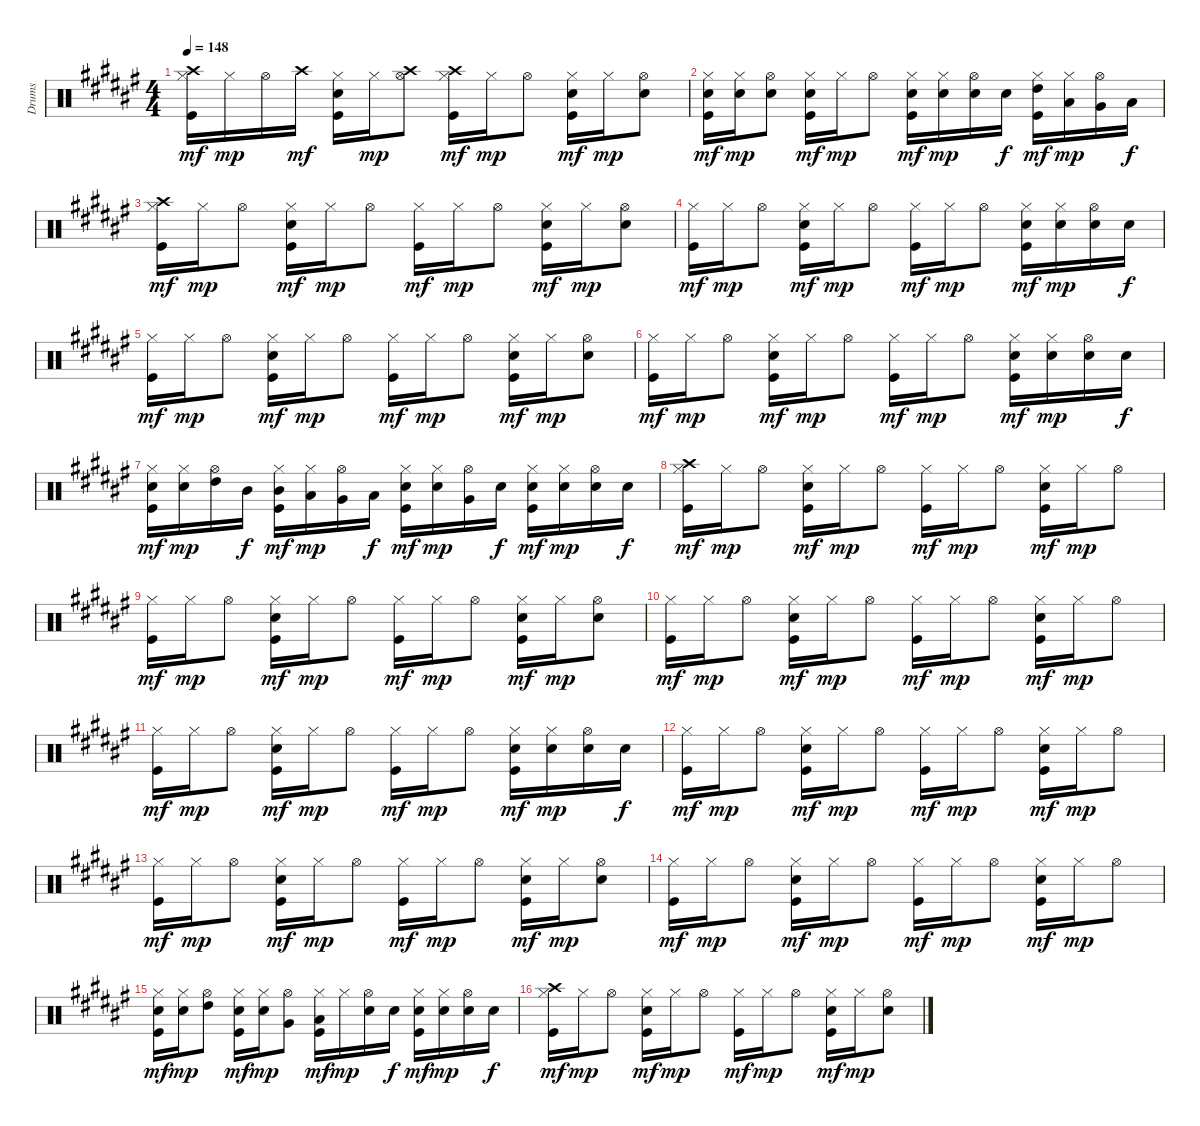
\track ("Drums" "Drums") {instrument percussion}
\staff {score}
\articulation defaults
\ts (4 4)
\tempo 148
\clef neutral
\ks d#minor
("Kick (hit)" "Crash high (hit)" "Hi-Hat (closed)").16{dy mf} "Hi-Hat (closed)".16{dy mp} "Hi-Hat (open)".16 "Crash high (hit)".16{dy mf} ("Electric Snare (hit)" "Kick (hit)" "Hi-Hat (closed)").16 "Hi-Hat (closed)".16{dy mp} ("Crash high (hit)" "Hi-Hat (open)").8 ("Kick (hit)" "Crash high (hit)" "Hi-Hat (closed)").16{dy mf} "Hi-Hat (closed)".16{dy mp} "Hi-Hat (open)".8 ("Electric Snare (hit)" "Kick (hit)" "Hi-Hat (closed)").16{dy mf} "Hi-Hat (closed)".16{dy mp} ("Snare (hit) 2" "Hi-Hat (open)").8 |
("Kick (hit)" "Snare (hit) 2" "Hi-Hat (closed)").16{dy mf} ("Snare (hit) 2" "Hi-Hat (closed)").16{dy mp} ("Electric Snare (hit)" "Hi-Hat (open)").8 ("Kick (hit)" "Snare (hit) 2" "Hi-Hat (closed)").16{dy mf} "Hi-Hat (closed)".16{dy mp} "Hi-Hat (open)".8 ("Kick (hit)" "Snare (hit) 2" "Hi-Hat (closed)").16{dy mf} ("Snare (hit) 2" "Hi-Hat (closed)").16{dy mp} ("Electric Snare (hit)" "Hi-Hat (open)").16 "Electric Snare (hit)".16{dy f} ("Kick (hit)" "Hi-Hat (closed)" "High Tom (hit)").16{dy mf} ("Low Tom (hit)" "Hi-Hat (closed)").16{dy mp} ("Very Low Tom (hit)" "Hi-Hat (open)").16 "Low Floor Tom (hit)".16{dy f} |
("Crash high (hit)" "Kick (hit)" "Hi-Hat (closed)").16{dy mf} "Hi-Hat (closed)".16{dy mp} "Hi-Hat (open)".8 ("Electric Snare (hit)" "Kick (hit)" "Hi-Hat (closed)").16{dy mf} "Hi-Hat (closed)".16{dy mp} "Hi-Hat (open)".8 ("Kick (hit)" "Hi-Hat (closed)").16{dy mf} "Hi-Hat (closed)".16{dy mp} "Hi-Hat (open)".8 ("Electric Snare (hit)" "Kick (hit)" "Hi-Hat (closed)").16{dy mf} "Hi-Hat (closed)".16{dy mp} ("Snare (hit) 2" "Hi-Hat (open)").8 |
("Kick (hit)" "Hi-Hat (closed)").16{dy mf} "Hi-Hat (closed)".16{dy mp} "Hi-Hat (open)".8 ("Electric Snare (hit)" "Kick (hit)" "Hi-Hat (closed)").16{dy mf} "Hi-Hat (closed)".16{dy mp} "Hi-Hat (open)".8 ("Kick (hit)" "Hi-Hat (closed)").16{dy mf} "Hi-Hat (closed)".16{dy mp} "Hi-Hat (open)".8 ("Snare (hit) 2" "Kick (hit)" "Hi-Hat (closed)").16{dy mf} ("Snare (hit) 2" "Hi-Hat (closed)").16{dy mp} ("Snare (hit) 2" "Hi-Hat (open)").16 "Snare (hit) 2".16{dy f} |
("Kick (hit)" "Hi-Hat (closed)").16{dy mf} "Hi-Hat (closed)".16{dy mp} "Hi-Hat (open)".8 ("Electric Snare (hit)" "Kick (hit)" "Hi-Hat (closed)").16{dy mf} "Hi-Hat (closed)".16{dy mp} "Hi-Hat (open)".8 ("Kick (hit)" "Hi-Hat (closed)").16{dy mf} "Hi-Hat (closed)".16{dy mp} "Hi-Hat (open)".8 ("Electric Snare (hit)" "Kick (hit)" "Hi-Hat (closed)").16{dy mf} "Hi-Hat (closed)".16{dy mp} ("Snare (hit) 2" "Hi-Hat (open)").8 |
("Kick (hit)" "Hi-Hat (closed)").16{dy mf} "Hi-Hat (closed)".16{dy mp} "Hi-Hat (open)".8 ("Electric Snare (hit)" "Kick (hit)" "Hi-Hat (closed)").16{dy mf} "Hi-Hat (closed)".16{dy mp} "Hi-Hat (open)".8 ("Kick (hit)" "Hi-Hat (closed)").16{dy mf} "Hi-Hat (closed)".16{dy mp} "Hi-Hat (open)".8 ("Snare (hit) 2" "Kick (hit)" "Hi-Hat (closed)").16{dy mf} ("Snare (hit) 2" "Hi-Hat (closed)").16{dy mp} ("Snare (hit) 2" "Hi-Hat (open)").16 "Snare (hit) 2".16{dy f} |
("Kick (hit)" "Hi-Hat (closed)" "Electric Snare (hit)").16{dy mf} ("Snare (hit) 2" "Hi-Hat (closed)").16{dy mp} ("High Tom (hit)" "Hi-Hat (open)").16 "Mid Tom (hit)".16{dy f} ("Kick (hit)" "Hi-Hat (closed)" "Mid Tom (hit)").16{dy mf} ("Low Tom (hit)" "Hi-Hat (closed)").16{dy mp} ("Very Low Tom (hit)" "Hi-Hat (open)").16 "Low Floor Tom (hit)".16{dy f} ("Kick (hit)" "Hi-Hat (closed)" "Snare (hit) 2").16{dy mf} ("Snare (hit) 2" "Hi-Hat (closed)").16{dy mp} ("Very Low Tom (hit)" "Hi-Hat (open)").16 "Electric Snare (hit)".16{dy f} ("Kick (hit)" "Hi-Hat (closed)" "Snare (hit) 2").16{dy mf} ("Snare (hit) 2" "Hi-Hat (closed)").16{dy mp} ("Electric Snare (hit)" "Hi-Hat (open)").16 "Electric Snare (hit)".16{dy f} |
("Crash high (hit)" "Kick (hit)" "Hi-Hat (closed)").16{dy mf} "Hi-Hat (closed)".16{dy mp} "Hi-Hat (open)".8 ("Electric Snare (hit)" "Kick (hit)" "Hi-Hat (closed)").16{dy mf} "Hi-Hat (closed)".16{dy mp} "Hi-Hat (open)".8 ("Kick (hit)" "Hi-Hat (closed)").16{dy mf} "Hi-Hat (closed)".16{dy mp} "Hi-Hat (open)".8 ("Electric Snare (hit)" "Kick (hit)" "Hi-Hat (closed)").16{dy mf} "Hi-Hat (closed)".16{dy mp} "Hi-Hat (open)".8 |
("Kick (hit)" "Hi-Hat (closed)").16{dy mf} "Hi-Hat (closed)".16{dy mp} "Hi-Hat (open)".8 ("Electric Snare (hit)" "Kick (hit)" "Hi-Hat (closed)").16{dy mf} "Hi-Hat (closed)".16{dy mp} "Hi-Hat (open)".8 ("Kick (hit)" "Hi-Hat (closed)").16{dy mf} "Hi-Hat (closed)".16{dy mp} "Hi-Hat (open)".8 ("Electric Snare (hit)" "Kick (hit)" "Hi-Hat (closed)").16{dy mf} "Hi-Hat (closed)".16{dy mp} ("Snare (hit) 2" "Hi-Hat (open)").8 |
("Kick (hit)" "Hi-Hat (closed)").16{dy mf} "Hi-Hat (closed)".16{dy mp} "Hi-Hat (open)".8 ("Electric Snare (hit)" "Kick (hit)" "Hi-Hat (closed)").16{dy mf} "Hi-Hat (closed)".16{dy mp} "Hi-Hat (open)".8 ("Kick (hit)" "Hi-Hat (closed)").16{dy mf} "Hi-Hat (closed)".16{dy mp} "Hi-Hat (open)".8 ("Electric Snare (hit)" "Kick (hit)" "Hi-Hat (closed)").16{dy mf} "Hi-Hat (closed)".16{dy mp} "Hi-Hat (open)".8 |
("Kick (hit)" "Hi-Hat (closed)").16{dy mf} "Hi-Hat (closed)".16{dy mp} "Hi-Hat (open)".8 ("Electric Snare (hit)" "Kick (hit)" "Hi-Hat (closed)").16{dy mf} "Hi-Hat (closed)".16{dy mp} "Hi-Hat (open)".8 ("Kick (hit)" "Hi-Hat (closed)").16{dy mf} "Hi-Hat (closed)".16{dy mp} "Hi-Hat (open)".8 ("Snare (hit) 2" "Kick (hit)" "Hi-Hat (closed)").16{dy mf} ("Snare (hit) 2" "Hi-Hat (closed)").16{dy mp} ("Snare (hit) 2" "Hi-Hat (open)").16 "Snare (hit) 2".16{dy f} |
("Kick (hit)" "Hi-Hat (closed)").16{dy mf} "Hi-Hat (closed)".16{dy mp} "Hi-Hat (open)".8 ("Electric Snare (hit)" "Kick (hit)" "Hi-Hat (closed)").16{dy mf} "Hi-Hat (closed)".16{dy mp} "Hi-Hat (open)".8 ("Kick (hit)" "Hi-Hat (closed)").16{dy mf} "Hi-Hat (closed)".16{dy mp} "Hi-Hat (open)".8 ("Electric Snare (hit)" "Kick (hit)" "Hi-Hat (closed)").16{dy mf} "Hi-Hat (closed)".16{dy mp} "Hi-Hat (open)".8 |
("Kick (hit)" "Hi-Hat (closed)").16{dy mf} "Hi-Hat (closed)".16{dy mp} "Hi-Hat (open)".8 ("Electric Snare (hit)" "Kick (hit)" "Hi-Hat (closed)").16{dy mf} "Hi-Hat (closed)".16{dy mp} "Hi-Hat (open)".8 ("Kick (hit)" "Hi-Hat (closed)").16{dy mf} "Hi-Hat (closed)".16{dy mp} "Hi-Hat (open)".8 ("Electric Snare (hit)" "Kick (hit)" "Hi-Hat (closed)").16{dy mf} "Hi-Hat (closed)".16{dy mp} ("Snare (hit) 2" "Hi-Hat (open)").8 |
("Kick (hit)" "Hi-Hat (closed)").16{dy mf} "Hi-Hat (closed)".16{dy mp} "Hi-Hat (open)".8 ("Electric Snare (hit)" "Kick (hit)" "Hi-Hat (closed)").16{dy mf} "Hi-Hat (closed)".16{dy mp} "Hi-Hat (open)".8 ("Kick (hit)" "Hi-Hat (closed)").16{dy mf} "Hi-Hat (closed)".16{dy mp} "Hi-Hat (open)".8 ("Electric Snare (hit)" "Kick (hit)" "Hi-Hat (closed)").16{dy mf} "Hi-Hat (closed)".16{dy mp} "Hi-Hat (open)".8 |
("Snare (hit) 2" "Kick (hit)" "Hi-Hat (closed)").16{dy mf} ("Snare (hit) 2" "Hi-Hat (closed)").16{dy mp} ("High Tom (hit)" "Hi-Hat (open)").8 ("Kick (hit)" "Snare (hit) 2" "Hi-Hat (closed)").16{dy mf} ("Snare (hit) 2" "Hi-Hat (closed)").16{dy mp} ("Very Low Tom (hit)" "Hi-Hat (open)").8 ("Kick (hit)" "Low Floor Tom (hit)" "Hi-Hat (closed)").16{dy mf} "Hi-Hat (closed)".16{dy mp} ("Snare (hit) 2" "Hi-Hat (open)").16 "Snare (hit) 2".16{dy f} ("Kick (hit)" "Hi-Hat (closed)" "Electric Snare (hit)").16{dy mf} ("Electric Snare (hit)" "Hi-Hat (closed)").16{dy mp} ("Snare (hit) 2" "Hi-Hat (open)").16 "Snare (hit) 2".16{dy f} |
("Crash high (hit)" "Kick (hit)" "Hi-Hat (closed)").16{dy mf} "Hi-Hat (closed)".16{dy mp} "Hi-Hat (open)".8 ("Electric Snare (hit)" "Kick (hit)" "Hi-Hat (closed)").16{dy mf} "Hi-Hat (closed)".16{dy mp} "Hi-Hat (open)".8 ("Kick (hit)" "Hi-Hat (closed)").16{dy mf} "Hi-Hat (closed)".16{dy mp} "Hi-Hat (open)".8 ("Electric Snare (hit)" "Kick (hit)" "Hi-Hat (closed)").16{dy mf} "Hi-Hat (closed)".16{dy mp} ("Snare (hit) 2" "Hi-Hat (open)").8
